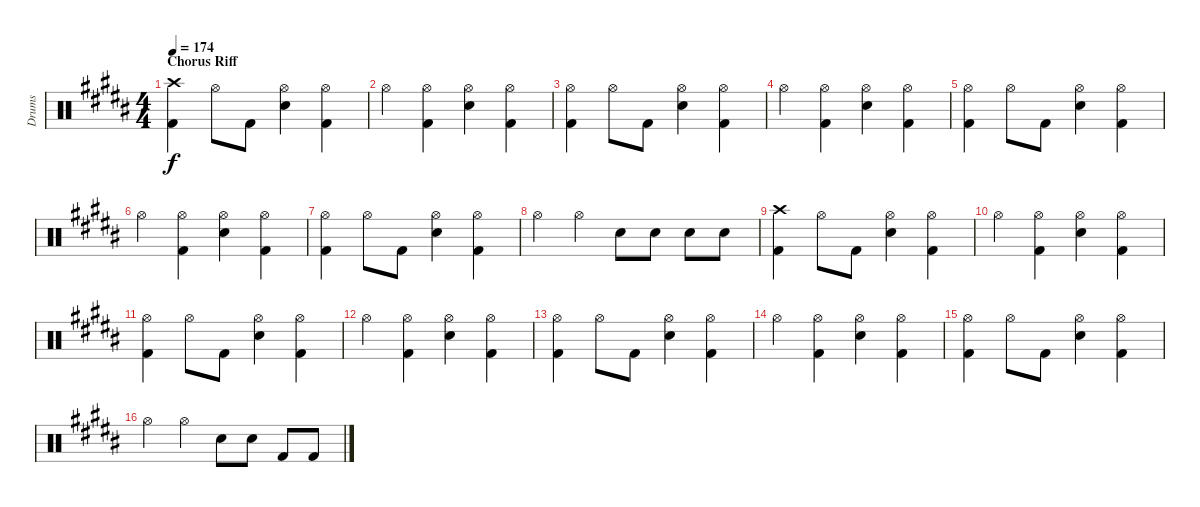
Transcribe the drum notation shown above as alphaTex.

\track ("Drums" "Drums") {instrument percussion}
\staff {score}
\articulation defaults
\ts (4 4)
\section ("" "Chorus Riff")
\tempo 174
\clef neutral
\ks g#minor
("Crash high (hit)" "Kick (hit) 2").4{dy f} "Hi-Hat (open)".8 "Kick (hit) 2".8 ("Hi-Hat (open)" "Electric Snare (hit)").4 ("Hi-Hat (open)" "Kick (hit) 2").4 |
"Hi-Hat (open)".4 ("Hi-Hat (open)" "Kick (hit) 2").4 ("Hi-Hat (open)" "Electric Snare (hit)").4 ("Hi-Hat (open)" "Kick (hit) 2").4 |
("Hi-Hat (open)" "Kick (hit) 2").4 "Hi-Hat (open)".8 "Kick (hit) 2".8 ("Hi-Hat (open)" "Electric Snare (hit)").4 ("Hi-Hat (open)" "Kick (hit) 2").4 |
"Hi-Hat (open)".4 ("Hi-Hat (open)" "Kick (hit) 2").4 ("Hi-Hat (open)" "Electric Snare (hit)").4 ("Hi-Hat (open)" "Kick (hit) 2").4 |
("Hi-Hat (open)" "Kick (hit) 2").4 "Hi-Hat (open)".8 "Kick (hit) 2".8 ("Hi-Hat (open)" "Electric Snare (hit)").4 ("Hi-Hat (open)" "Kick (hit) 2").4 |
"Hi-Hat (open)".4 ("Hi-Hat (open)" "Kick (hit) 2").4 ("Hi-Hat (open)" "Electric Snare (hit)").4 ("Hi-Hat (open)" "Kick (hit) 2").4 |
("Hi-Hat (open)" "Kick (hit) 2").4 "Hi-Hat (open)".8 "Kick (hit) 2".8 ("Hi-Hat (open)" "Electric Snare (hit)").4 ("Hi-Hat (open)" "Kick (hit) 2").4 |
"Hi-Hat (open)".4 "Hi-Hat (open)".4 "Electric Snare (hit)".8 "Electric Snare (hit)".8 "Electric Snare (hit)".8 "Electric Snare (hit)".8 |
("Crash high (hit)" "Kick (hit) 2").4 "Hi-Hat (open)".8 "Kick (hit) 2".8 ("Hi-Hat (open)" "Electric Snare (hit)").4 ("Hi-Hat (open)" "Kick (hit) 2").4 |
"Hi-Hat (open)".4 ("Hi-Hat (open)" "Kick (hit) 2").4 ("Hi-Hat (open)" "Electric Snare (hit)").4 ("Hi-Hat (open)" "Kick (hit) 2").4 |
("Hi-Hat (open)" "Kick (hit) 2").4 "Hi-Hat (open)".8 "Kick (hit) 2".8 ("Hi-Hat (open)" "Electric Snare (hit)").4 ("Hi-Hat (open)" "Kick (hit) 2").4 |
"Hi-Hat (open)".4 ("Hi-Hat (open)" "Kick (hit) 2").4 ("Hi-Hat (open)" "Electric Snare (hit)").4 ("Hi-Hat (open)" "Kick (hit) 2").4 |
("Hi-Hat (open)" "Kick (hit) 2").4 "Hi-Hat (open)".8 "Kick (hit) 2".8 ("Hi-Hat (open)" "Electric Snare (hit)").4 ("Hi-Hat (open)" "Kick (hit) 2").4 |
"Hi-Hat (open)".4 ("Hi-Hat (open)" "Kick (hit) 2").4 ("Hi-Hat (open)" "Electric Snare (hit)").4 ("Hi-Hat (open)" "Kick (hit) 2").4 |
("Hi-Hat (open)" "Kick (hit) 2").4 "Hi-Hat (open)".8 "Kick (hit) 2".8 ("Hi-Hat (open)" "Electric Snare (hit)").4 ("Hi-Hat (open)" "Kick (hit) 2").4 |
"Hi-Hat (open)".4 "Hi-Hat (open)".4 "Electric Snare (hit)".8 "Electric Snare (hit)".8 "Kick (hit) 2".8 "Kick (hit) 2".8
